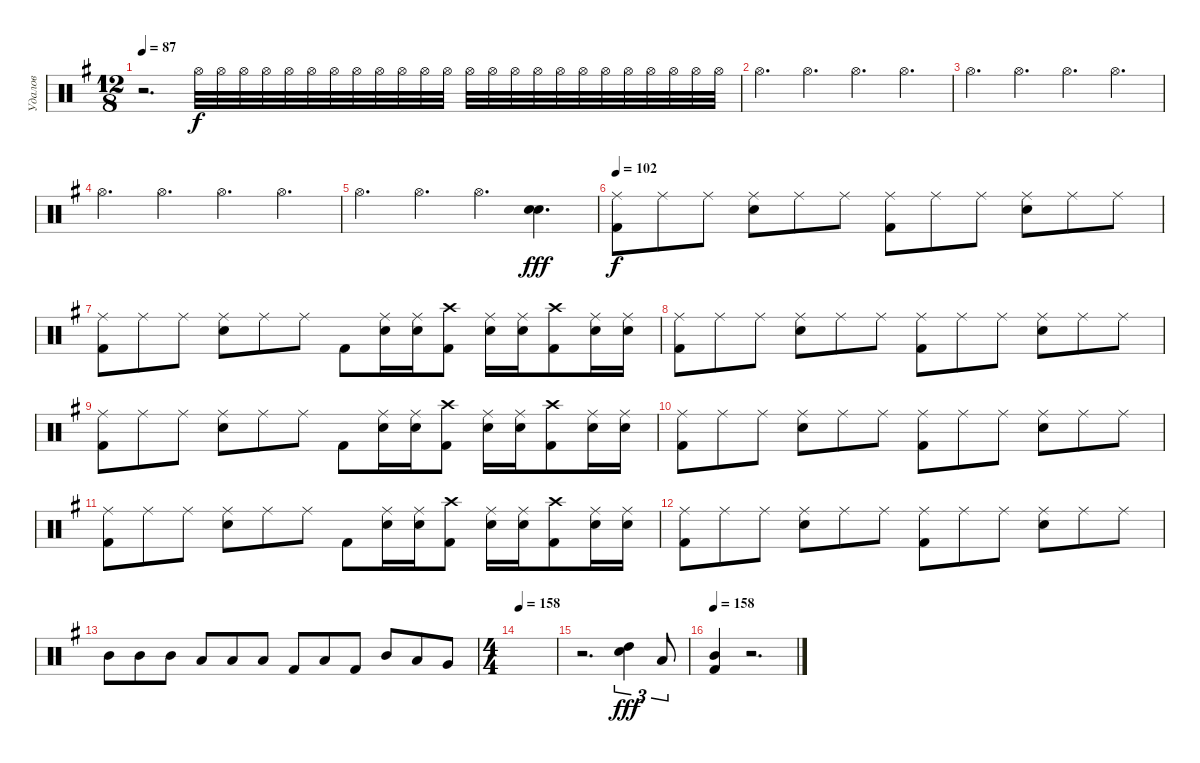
\track ("Удалов" "Удалов") {instrument percussion}
\staff {score}
\articulation defaults
\ts (12 8)
\tempo 87
\clef neutral
\ks g
r.2{d dy f} "Hi-Hat (open)".32{volume 0} "Hi-Hat (open)".32{volume 13} "Hi-Hat (open)".32 "Hi-Hat (open)".32 "Hi-Hat (open)".32 "Hi-Hat (open)".32 "Hi-Hat (open)".32 "Hi-Hat (open)".32 "Hi-Hat (open)".32 "Hi-Hat (open)".32 "Hi-Hat (open)".32 "Hi-Hat (open)".32 "Hi-Hat (open)".32 "Hi-Hat (open)".32 "Hi-Hat (open)".32 "Hi-Hat (open)".32 "Hi-Hat (open)".32 "Hi-Hat (open)".32 "Hi-Hat (open)".32 "Hi-Hat (open)".32 "Hi-Hat (open)".32 "Hi-Hat (open)".32 "Hi-Hat (open)".32 "Hi-Hat (open)".32 |
"Hi-Hat (open)".4{d} "Hi-Hat (open)".4{d} "Hi-Hat (open)".4{d} "Hi-Hat (open)".4{d} |
"Hi-Hat (open)".4{d} "Hi-Hat (open)".4{d} "Hi-Hat (open)".4{d} "Hi-Hat (open)".4{d} |
"Hi-Hat (open)".4{d} "Hi-Hat (open)".4{d} "Hi-Hat (open)".4{d} "Hi-Hat (open)".4{d} |
"Hi-Hat (open)".4{d} "Hi-Hat (open)".4{d} "Hi-Hat (open)".4{d} ("Electric Snare (hit)" "Electric Snare (hit)").4{d bd 120 dy fff} |
\tempo 102
("Kick (hit) 2" "Ride (middle)").8{dy f} "Ride (middle)".8 "Ride (middle)".8 ("Electric Snare (hit)" "Ride (middle)").8 "Ride (middle)".8 "Ride (middle)".8 ("Kick (hit) 2" "Ride (middle)").8 "Ride (middle)".8 "Ride (middle)".8 ("Electric Snare (hit)" "Ride (middle)").8 "Ride (middle)".8 "Ride (middle)".8 |
("Kick (hit) 2" "Ride (middle)").8 "Ride (middle)".8 "Ride (middle)".8 ("Electric Snare (hit)" "Ride (middle)").8 "Ride (middle)".8 "Ride (middle)".8 "Kick (hit) 2".8 ("Electric Snare (hit)" "Ride (middle)").16 ("Electric Snare (hit)" "Ride (middle)").16 ("Kick (hit) 2" "Crash high (hit)").8 ("Electric Snare (hit)" "Ride (middle)").16 ("Electric Snare (hit)" "Ride (middle)").16 ("Kick (hit) 2" "Crash high (hit)").8 ("Electric Snare (hit)" "Ride (middle)").16 ("Electric Snare (hit)" "Ride (middle)").16 |
("Kick (hit) 2" "Ride (middle)").8 "Ride (middle)".8 "Ride (middle)".8 ("Electric Snare (hit)" "Ride (middle)").8 "Ride (middle)".8 "Ride (middle)".8 ("Kick (hit) 2" "Ride (middle)").8 "Ride (middle)".8 "Ride (middle)".8 ("Electric Snare (hit)" "Ride (middle)").8 "Ride (middle)".8 "Ride (middle)".8 |
("Kick (hit) 2" "Ride (middle)").8 "Ride (middle)".8 "Ride (middle)".8 ("Electric Snare (hit)" "Ride (middle)").8 "Ride (middle)".8 "Ride (middle)".8 "Kick (hit) 2".8 ("Electric Snare (hit)" "Ride (middle)").16 ("Electric Snare (hit)" "Ride (middle)").16 ("Kick (hit) 2" "Crash high (hit)").8 ("Electric Snare (hit)" "Ride (middle)").16 ("Electric Snare (hit)" "Ride (middle)").16 ("Kick (hit) 2" "Crash high (hit)").8 ("Electric Snare (hit)" "Ride (middle)").16 ("Electric Snare (hit)" "Ride (middle)").16 |
("Kick (hit) 2" "Ride (middle)").8 "Ride (middle)".8 "Ride (middle)".8 ("Electric Snare (hit)" "Ride (middle)").8 "Ride (middle)".8 "Ride (middle)".8 ("Kick (hit) 2" "Ride (middle)").8 "Ride (middle)".8 "Ride (middle)".8 ("Electric Snare (hit)" "Ride (middle)").8 "Ride (middle)".8 "Ride (middle)".8 |
("Kick (hit) 2" "Ride (middle)").8 "Ride (middle)".8 "Ride (middle)".8 ("Electric Snare (hit)" "Ride (middle)").8 "Ride (middle)".8 "Ride (middle)".8 "Kick (hit) 2".8 ("Electric Snare (hit)" "Ride (middle)").16 ("Electric Snare (hit)" "Ride (middle)").16 ("Kick (hit) 2" "Crash high (hit)").8 ("Electric Snare (hit)" "Ride (middle)").16 ("Electric Snare (hit)" "Ride (middle)").16 ("Kick (hit) 2" "Crash high (hit)").8 ("Electric Snare (hit)" "Ride (middle)").16 ("Electric Snare (hit)" "Ride (middle)").16 |
("Kick (hit) 2" "Ride (middle)").8 "Ride (middle)".8 "Ride (middle)".8 ("Electric Snare (hit)" "Ride (middle)").8 "Ride (middle)".8 "Ride (middle)".8 ("Kick (hit) 2" "Ride (middle)").8 "Ride (middle)".8 "Ride (middle)".8 ("Electric Snare (hit)" "Ride (middle)").8 "Ride (middle)".8 "Ride (middle)".8 |
"Mid Tom (hit)".8 "Mid Tom (hit)".8 "Mid Tom (hit)".8 "Low Tom (hit)".8 "Low Tom (hit)".8 "Low Tom (hit)".8 "Kick (hit) 2".8 "Low Tom (hit)".8 "Kick (hit) 2".8 "Mid Tom (hit)".8 "Low Tom (hit)".8 "Very Low Tom (hit)".8 |
\ts (4 4)
\tempo 158
|
r.2{d} ("High Tom (hit)" "Electric Snare (hit)").4{tu (3 2) dy fff} "Low Tom (hit)".8{tu (3 2)} |
\tempo 158
("Mid Tom (hit)" "Kick (hit) 2").4 r.2{d}
